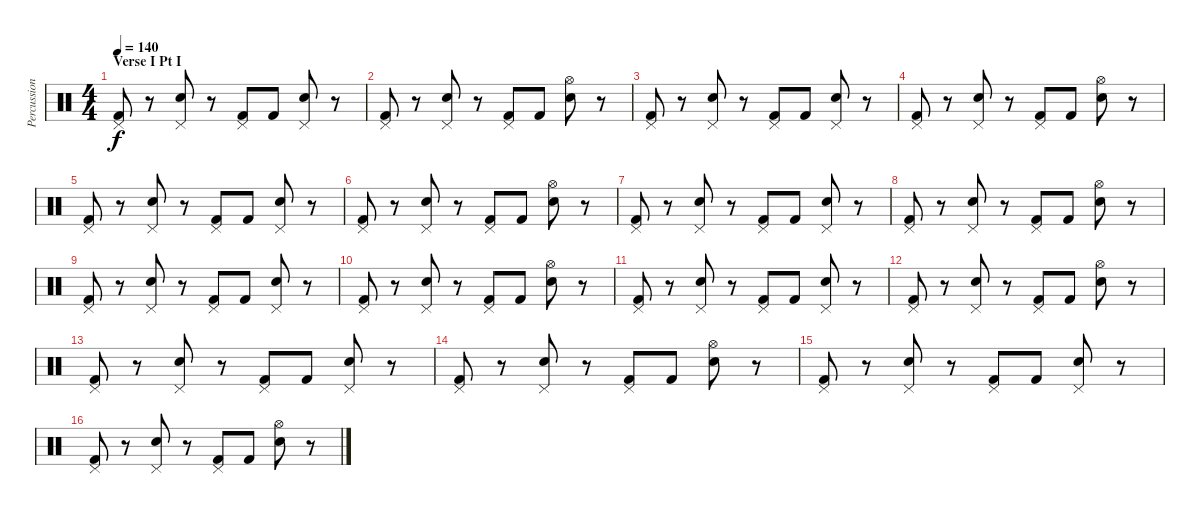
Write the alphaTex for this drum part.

\track ("Percussion" "Percussion") {instrument percussion}
\staff {score}
\articulation defaults
\ts (4 4)
\section ("" "Verse I Pt I")
\tempo 140
\clef neutral
\ks c
("Pedal Hi-Hat (hit)" "Kick (hit) 2").8{dy f} r.8 ("Pedal Hi-Hat (hit)" "Electric Snare (hit)").8 r.8 ("Pedal Hi-Hat (hit)" "Kick (hit) 2").8 "Kick (hit) 2".8 ("Pedal Hi-Hat (hit)" "Electric Snare (hit)").8 r.8 |
("Pedal Hi-Hat (hit)" "Kick (hit) 2").8 r.8 ("Pedal Hi-Hat (hit)" "Electric Snare (hit)").8 r.8 ("Pedal Hi-Hat (hit)" "Kick (hit) 2").8 "Kick (hit) 2".8 ("Hi-Hat (open)" "Electric Snare (hit)").8 r.8 |
("Pedal Hi-Hat (hit)" "Kick (hit) 2").8 r.8 ("Pedal Hi-Hat (hit)" "Electric Snare (hit)").8 r.8 ("Pedal Hi-Hat (hit)" "Kick (hit) 2").8 "Kick (hit) 2".8 ("Pedal Hi-Hat (hit)" "Electric Snare (hit)").8 r.8 |
("Pedal Hi-Hat (hit)" "Kick (hit) 2").8 r.8 ("Pedal Hi-Hat (hit)" "Electric Snare (hit)").8 r.8 ("Pedal Hi-Hat (hit)" "Kick (hit) 2").8 "Kick (hit) 2".8 ("Hi-Hat (open)" "Electric Snare (hit)").8 r.8 |
("Pedal Hi-Hat (hit)" "Kick (hit) 2").8 r.8 ("Pedal Hi-Hat (hit)" "Electric Snare (hit)").8 r.8 ("Pedal Hi-Hat (hit)" "Kick (hit) 2").8 "Kick (hit) 2".8 ("Pedal Hi-Hat (hit)" "Electric Snare (hit)").8 r.8 |
("Pedal Hi-Hat (hit)" "Kick (hit) 2").8 r.8 ("Pedal Hi-Hat (hit)" "Electric Snare (hit)").8 r.8 ("Pedal Hi-Hat (hit)" "Kick (hit) 2").8 "Kick (hit) 2".8 ("Hi-Hat (open)" "Electric Snare (hit)").8 r.8 |
("Pedal Hi-Hat (hit)" "Kick (hit) 2").8 r.8 ("Pedal Hi-Hat (hit)" "Electric Snare (hit)").8 r.8 ("Pedal Hi-Hat (hit)" "Kick (hit) 2").8 "Kick (hit) 2".8 ("Pedal Hi-Hat (hit)" "Electric Snare (hit)").8 r.8 |
("Pedal Hi-Hat (hit)" "Kick (hit) 2").8 r.8 ("Pedal Hi-Hat (hit)" "Electric Snare (hit)").8 r.8 ("Pedal Hi-Hat (hit)" "Kick (hit) 2").8 "Kick (hit) 2".8 ("Hi-Hat (open)" "Electric Snare (hit)").8 r.8 |
("Pedal Hi-Hat (hit)" "Kick (hit) 2").8 r.8 ("Pedal Hi-Hat (hit)" "Electric Snare (hit)").8 r.8 ("Pedal Hi-Hat (hit)" "Kick (hit) 2").8 "Kick (hit) 2".8 ("Pedal Hi-Hat (hit)" "Electric Snare (hit)").8 r.8 |
("Pedal Hi-Hat (hit)" "Kick (hit) 2").8 r.8 ("Pedal Hi-Hat (hit)" "Electric Snare (hit)").8 r.8 ("Pedal Hi-Hat (hit)" "Kick (hit) 2").8 "Kick (hit) 2".8 ("Hi-Hat (open)" "Electric Snare (hit)").8 r.8 |
("Pedal Hi-Hat (hit)" "Kick (hit) 2").8 r.8 ("Pedal Hi-Hat (hit)" "Electric Snare (hit)").8 r.8 ("Pedal Hi-Hat (hit)" "Kick (hit) 2").8 "Kick (hit) 2".8 ("Pedal Hi-Hat (hit)" "Electric Snare (hit)").8 r.8 |
("Pedal Hi-Hat (hit)" "Kick (hit) 2").8 r.8 ("Pedal Hi-Hat (hit)" "Electric Snare (hit)").8 r.8 ("Pedal Hi-Hat (hit)" "Kick (hit) 2").8 "Kick (hit) 2".8 ("Hi-Hat (open)" "Electric Snare (hit)").8 r.8 |
("Pedal Hi-Hat (hit)" "Kick (hit) 2").8 r.8 ("Pedal Hi-Hat (hit)" "Electric Snare (hit)").8 r.8 ("Pedal Hi-Hat (hit)" "Kick (hit) 2").8 "Kick (hit) 2".8 ("Pedal Hi-Hat (hit)" "Electric Snare (hit)").8 r.8 |
("Pedal Hi-Hat (hit)" "Kick (hit) 2").8 r.8 ("Pedal Hi-Hat (hit)" "Electric Snare (hit)").8 r.8 ("Pedal Hi-Hat (hit)" "Kick (hit) 2").8 "Kick (hit) 2".8 ("Hi-Hat (open)" "Electric Snare (hit)").8 r.8 |
("Pedal Hi-Hat (hit)" "Kick (hit) 2").8 r.8 ("Pedal Hi-Hat (hit)" "Electric Snare (hit)").8 r.8 ("Pedal Hi-Hat (hit)" "Kick (hit) 2").8 "Kick (hit) 2".8 ("Pedal Hi-Hat (hit)" "Electric Snare (hit)").8 r.8 |
("Pedal Hi-Hat (hit)" "Kick (hit) 2").8 r.8 ("Pedal Hi-Hat (hit)" "Electric Snare (hit)").8 r.8 ("Pedal Hi-Hat (hit)" "Kick (hit) 2").8 "Kick (hit) 2".8 ("Hi-Hat (open)" "Electric Snare (hit)").8 r.8
